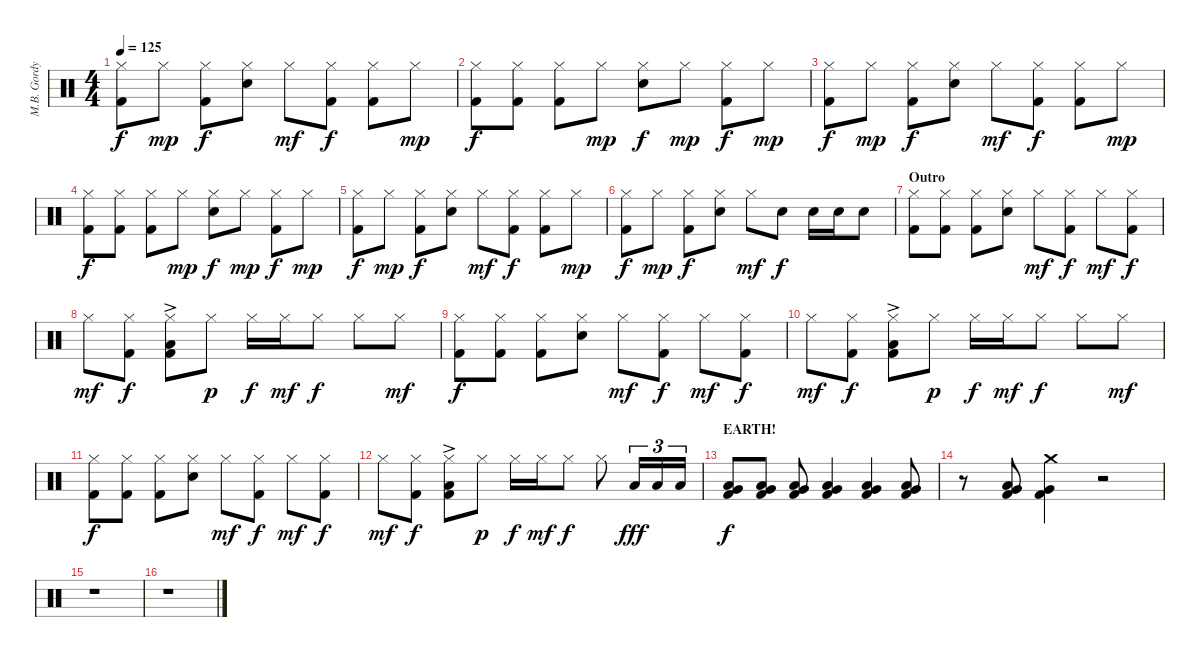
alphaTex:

\track ("M.B. Gordy [Percüsion]" "M.B. Gordy") {instrument percussion}
\staff {score}
\articulation defaults
\ts (4 4)
\tempo 125
\clef neutral
\ks c
("Hi-Hat (closed)" "Kick (hit) 2").8{dy f} "Hi-Hat (closed)".8{dy mp} ("Hi-Hat (closed)" "Kick (hit) 2").8{dy f} ("Hi-Hat (closed)" "Electric Snare (hit)").8 "Hi-Hat (closed)".8{dy mf} ("Hi-Hat (closed)" "Kick (hit) 2").8{dy f} ("Hi-Hat (closed)" "Kick (hit) 2").8 "Hi-Hat (closed)".8{dy mp} |
("Hi-Hat (closed)" "Kick (hit) 2").8{dy f} ("Hi-Hat (closed)" "Kick (hit) 2").8 ("Hi-Hat (closed)" "Kick (hit) 2").8 "Hi-Hat (closed)".8{dy mp} ("Hi-Hat (closed)" "Electric Snare (hit)").8{dy f} "Hi-Hat (closed)".8{dy mp} ("Hi-Hat (closed)" "Kick (hit) 2").8{dy f} "Hi-Hat (closed)".8{dy mp} |
("Hi-Hat (closed)" "Kick (hit) 2").8{dy f} "Hi-Hat (closed)".8{dy mp} ("Hi-Hat (closed)" "Kick (hit) 2").8{dy f} ("Hi-Hat (closed)" "Electric Snare (hit)").8 "Hi-Hat (closed)".8{dy mf} ("Hi-Hat (closed)" "Kick (hit) 2").8{dy f} ("Hi-Hat (closed)" "Kick (hit) 2").8 "Hi-Hat (closed)".8{dy mp} |
("Hi-Hat (closed)" "Kick (hit) 2").8{dy f} ("Hi-Hat (closed)" "Kick (hit) 2").8 ("Hi-Hat (closed)" "Kick (hit) 2").8 "Hi-Hat (closed)".8{dy mp} ("Hi-Hat (closed)" "Electric Snare (hit)").8{dy f} "Hi-Hat (closed)".8{dy mp} ("Hi-Hat (closed)" "Kick (hit) 2").8{dy f} "Hi-Hat (closed)".8{dy mp} |
("Hi-Hat (closed)" "Kick (hit) 2").8{dy f} "Hi-Hat (closed)".8{dy mp} ("Hi-Hat (closed)" "Kick (hit) 2").8{dy f} ("Hi-Hat (closed)" "Electric Snare (hit)").8 "Hi-Hat (closed)".8{dy mf} ("Hi-Hat (closed)" "Kick (hit) 2").8{dy f} ("Hi-Hat (closed)" "Kick (hit) 2").8 "Hi-Hat (closed)".8{dy mp} |
("Hi-Hat (closed)" "Kick (hit) 2").8{dy f} "Hi-Hat (closed)".8{dy mp} ("Hi-Hat (closed)" "Kick (hit) 2").8{dy f} ("Hi-Hat (closed)" "Electric Snare (hit)").8 "Hi-Hat (closed)".8{dy mf} "Electric Snare (hit)".8{dy f} "Electric Snare (hit)".16 "Electric Snare (hit)".16 "Electric Snare (hit)".8 |
\section ("" "Outro")
("Hi-Hat (closed)" "Kick (hit) 2").8 ("Hi-Hat (closed)" "Kick (hit) 2").8 ("Hi-Hat (closed)" "Kick (hit) 2").8 ("Hi-Hat (closed)" "Electric Snare (hit)").8 "Hi-Hat (closed)".8{dy mf} ("Hi-Hat (closed)" "Kick (hit) 2").8{dy f} "Hi-Hat (closed)".8{dy mf} ("Hi-Hat (closed)" "Kick (hit) 2").8{dy f} |
"Hi-Hat (closed)".8{dy mf} ("Hi-Hat (closed)" "Kick (hit) 2").8{dy f} ("Hi-Hat (closed)"{ac} "Low Tom (hit)" "Kick (hit) 2").8 "Hi-Hat (closed)".8{dy p} "Hi-Hat (closed)".16{dy f} "Hi-Hat (closed)".16{dy mf} "Hi-Hat (closed)".8{dy f} "Hi-Hat (closed)".8 "Hi-Hat (closed)".8{dy mf} |
("Hi-Hat (closed)" "Kick (hit) 2").8{dy f} ("Hi-Hat (closed)" "Kick (hit) 2").8 ("Hi-Hat (closed)" "Kick (hit) 2").8 ("Hi-Hat (closed)" "Electric Snare (hit)").8 "Hi-Hat (closed)".8{dy mf} ("Hi-Hat (closed)" "Kick (hit) 2").8{dy f} "Hi-Hat (closed)".8{dy mf} ("Hi-Hat (closed)" "Kick (hit) 2").8{dy f} |
"Hi-Hat (closed)".8{dy mf} ("Hi-Hat (closed)" "Kick (hit) 2").8{dy f} ("Hi-Hat (closed)"{ac} "Low Tom (hit)" "Kick (hit) 2").8 "Hi-Hat (closed)".8{dy p} "Hi-Hat (closed)".16{dy f} "Hi-Hat (closed)".16{dy mf} "Hi-Hat (closed)".8{dy f} "Hi-Hat (closed)".8 "Hi-Hat (closed)".8{dy mf} |
("Hi-Hat (closed)" "Kick (hit) 2").8{dy f} ("Hi-Hat (closed)" "Kick (hit) 2").8 ("Hi-Hat (closed)" "Kick (hit) 2").8 ("Hi-Hat (closed)" "Electric Snare (hit)").8 "Hi-Hat (closed)".8{dy mf} ("Hi-Hat (closed)" "Kick (hit) 2").8{dy f} "Hi-Hat (closed)".8{dy mf} ("Hi-Hat (closed)" "Kick (hit) 2").8{dy f} |
"Hi-Hat (closed)".8{dy mf} ("Hi-Hat (closed)" "Kick (hit) 2").8{dy f} ("Hi-Hat (closed)"{ac} "Low Tom (hit)" "Kick (hit) 2").8 "Hi-Hat (closed)".8{dy p} "Hi-Hat (closed)".16{dy f} "Hi-Hat (closed)".16{dy mf} "Hi-Hat (closed)".8{dy f} "Hi-Hat (closed)".8 "Low Tom (hit)".16{tu (3 2) dy fff} "Low Tom (hit)".16{tu (3 2)} "Low Tom (hit)".16{tu (3 2)} |
\section ("" "EARTH!")
("Low Tom (hit)" "Very Low Tom (hit)" "Kick (hit) 2").8{dy f} ("Low Tom (hit)" "Very Low Tom (hit)" "Kick (hit) 2").8 ("Low Tom (hit)" "Very Low Tom (hit)" "Kick (hit) 2").8 ("Low Tom (hit)" "Very Low Tom (hit)" "Kick (hit) 2").4 ("Low Tom (hit)" "Very Low Tom (hit)" "Kick (hit) 2").4 ("Low Tom (hit)" "Very Low Tom (hit)" "Kick (hit) 2").8 |
r.8 ("Low Tom (hit)" "Very Low Tom (hit)" "Kick (hit) 2").8 ("Crash medium (hit)" "Very Low Tom (hit)" "Kick (hit) 2").4 r.2 |
r.1 |
r.1
